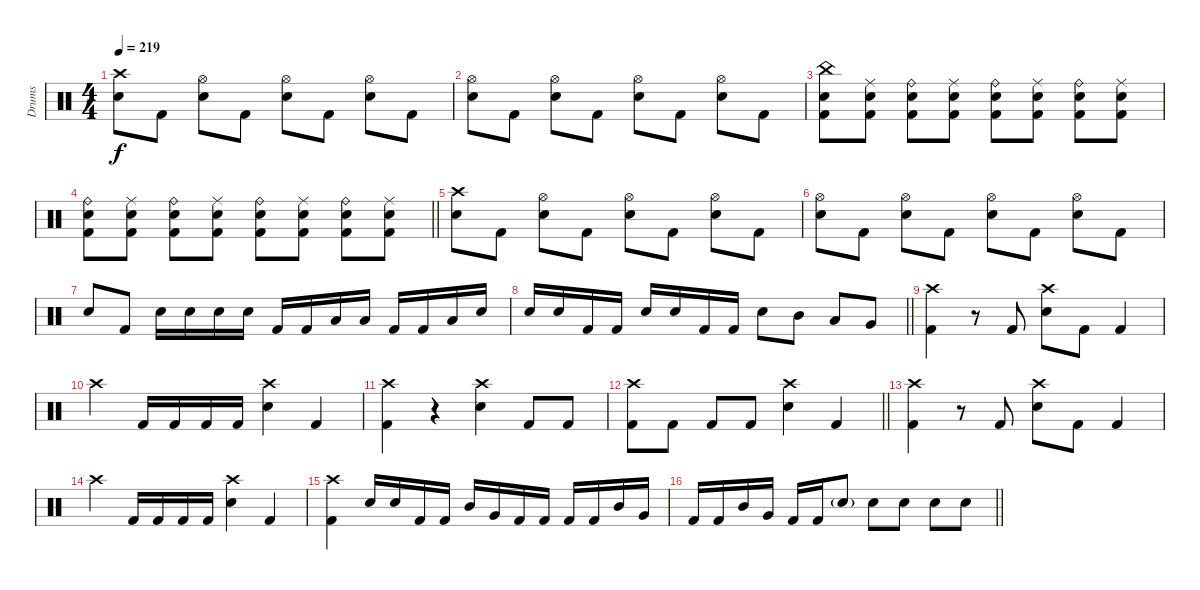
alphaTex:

\track ("Drums" "Drums") {instrument percussion}
\staff {score}
\articulation defaults
\ts (4 4)
\section ("" "")
\tempo 219
\clef neutral
\ks c
("Crash high (hit)" "Electric Snare (hit)").8{dy f} "Kick (hit) 2".8 ("Hi-Hat (open)" "Electric Snare (hit)").8 "Kick (hit) 2".8 ("Hi-Hat (open)" "Electric Snare (hit)").8 "Kick (hit) 2".8 ("Hi-Hat (open)" "Electric Snare (hit)").8 "Kick (hit) 2".8 |
("Hi-Hat (open)" "Electric Snare (hit)").8 "Kick (hit) 2".8 ("Hi-Hat (open)" "Electric Snare (hit)").8 "Kick (hit) 2".8 ("Hi-Hat (open)" "Electric Snare (hit)").8 "Kick (hit) 2".8 ("Hi-Hat (open)" "Electric Snare (hit)").8 "Kick (hit) 2".8 |
("China (hit)" "Electric Snare (hit)" "Kick (hit) 2").8 ("Ride (middle)" "Electric Snare (hit)" "Kick (hit) 2").8 ("Ride (bell)" "Electric Snare (hit)" "Kick (hit) 2").8 ("Ride (middle)" "Electric Snare (hit)" "Kick (hit) 2").8 ("Ride (bell)" "Electric Snare (hit)" "Kick (hit) 2").8 ("Ride (middle)" "Electric Snare (hit)" "Kick (hit) 2").8 ("Ride (bell)" "Electric Snare (hit)" "Kick (hit) 2").8 ("Ride (middle)" "Electric Snare (hit)" "Kick (hit) 2").8 |
\barLineRight lightlight
("Ride (bell)" "Electric Snare (hit)" "Kick (hit) 2").8 ("Ride (middle)" "Electric Snare (hit)" "Kick (hit) 2").8 ("Ride (bell)" "Electric Snare (hit)" "Kick (hit) 2").8 ("Ride (middle)" "Electric Snare (hit)" "Kick (hit) 2").8 ("Ride (bell)" "Electric Snare (hit)" "Kick (hit) 2").8 ("Ride (middle)" "Electric Snare (hit)" "Kick (hit) 2").8 ("Ride (bell)" "Electric Snare (hit)" "Kick (hit) 2").8 ("Ride (middle)" "Electric Snare (hit)" "Kick (hit) 2").8 |
("Crash high (hit)" "Electric Snare (hit)").8 "Kick (hit) 2".8 ("Hi-Hat (open)" "Electric Snare (hit)").8 "Kick (hit) 2".8 ("Hi-Hat (open)" "Electric Snare (hit)").8 "Kick (hit) 2".8 ("Hi-Hat (open)" "Electric Snare (hit)").8 "Kick (hit) 2".8 |
("Hi-Hat (open)" "Electric Snare (hit)").8 "Kick (hit) 2".8 ("Hi-Hat (open)" "Electric Snare (hit)").8 "Kick (hit) 2".8 ("Hi-Hat (open)" "Electric Snare (hit)").8 "Kick (hit) 2".8 ("Hi-Hat (open)" "Electric Snare (hit)").8 "Kick (hit) 2".8 |
"Electric Snare (hit)".8 "Kick (hit) 2".8 "Electric Snare (hit)".16 "Electric Snare (hit)".16 "Electric Snare (hit)".16 "Electric Snare (hit)".16 "Kick (hit) 2".16 "Kick (hit) 2".16 "Low Tom (hit)".16 "Low Tom (hit)".16 "Kick (hit) 2".16 "Kick (hit) 2".16 "Low Tom (hit)".16 "Electric Snare (hit)".16 |
\barLineRight lightlight "Electric Snare (hit)".16 "Electric Snare (hit)".16 "Kick (hit) 2".16 "Kick (hit) 2".16 "Electric Snare (hit)".16 "Electric Snare (hit)".16 "Kick (hit) 2".16 "Kick (hit) 2".16 "Electric Snare (hit)".8 "Mid Tom (hit)".8 "Low Tom (hit)".8 "Very Low Tom (hit)".8
|
\section ("" "")
("Crash high (hit)" "Kick (hit) 2").4 r.8 "Kick (hit) 2".8 ("Crash high (hit)" "Electric Snare (hit)").8 "Kick (hit) 2".8 "Kick (hit) 2".4 |
"Crash high (hit)".4 "Kick (hit) 2".16 "Kick (hit) 2".16 "Kick (hit) 2".16 "Kick (hit) 2".16 ("Crash high (hit)" "Electric Snare (hit)").4 "Kick (hit) 2".4 |
("Crash high (hit)" "Kick (hit) 2").4 r.4 ("Crash high (hit)" "Electric Snare (hit)").4 "Kick (hit) 2".8 "Kick (hit) 2".8 |
\barLineRight lightlight
("Crash high (hit)" "Kick (hit) 2").8 "Kick (hit) 2".8 "Kick (hit) 2".8 "Kick (hit) 2".8 ("Crash high (hit)" "Electric Snare (hit)").4 "Kick (hit) 2".4 |
("Crash high (hit)" "Kick (hit) 2").4 r.8 "Kick (hit) 2".8 ("Crash high (hit)" "Electric Snare (hit)").8 "Kick (hit) 2".8 "Kick (hit) 2".4 |
"Crash high (hit)".4 "Kick (hit) 2".16 "Kick (hit) 2".16 "Kick (hit) 2".16 "Kick (hit) 2".16 ("Crash high (hit)" "Electric Snare (hit)").4 "Kick (hit) 2".4 |
("Crash high (hit)" "Kick (hit) 2").4 "Electric Snare (hit)".16 "Electric Snare (hit)".16 "Kick (hit) 2".16 "Kick (hit) 2".16 "Mid Tom (hit)".16 "Very Low Tom (hit)".16 "Kick (hit) 2".16 "Kick (hit) 2".16 "Kick (hit) 2".16 "Kick (hit) 2".16 "Mid Tom (hit)".16 "Very Low Tom (hit)".16 |
\barLineRight lightlight "Kick (hit) 2".16 "Kick (hit) 2".16 "Mid Tom (hit)".16 "Very Low Tom (hit)".16 "Kick (hit) 2".16 "Kick (hit) 2".16 "Electric Snare (hit)"{g}.8 "Electric Snare (hit)".8 "Electric Snare (hit)".8 "Electric Snare (hit)".8 "Electric Snare (hit)".8
